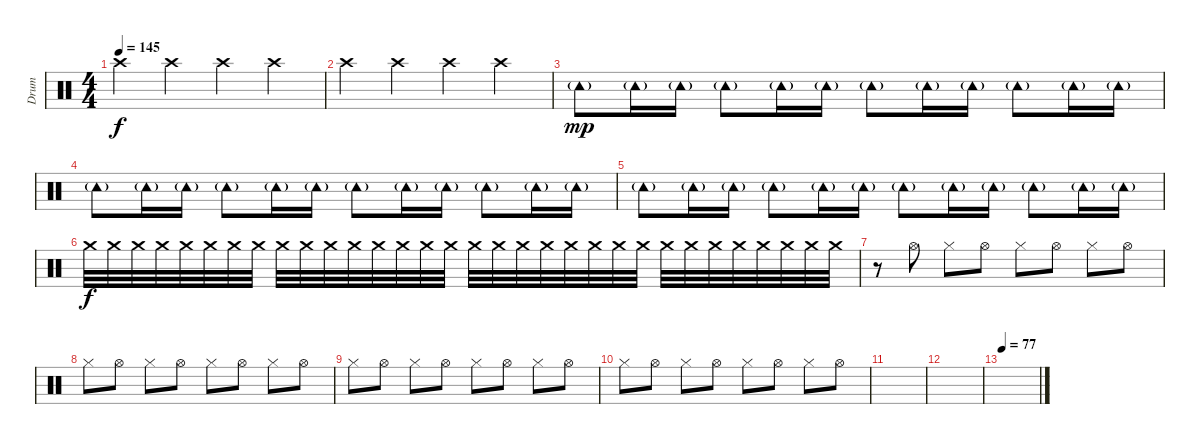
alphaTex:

\track ("Drum" "Drum") {instrument percussion bank 4}
\staff {score}
\articulation defaults
\ts (4 4)
\tempo 145
\clef neutral
\ks c "Crash high (hit)".4{dy f} "Crash high (hit)".4 "Crash high (hit)".4 "Crash high (hit)".4
|
"Crash high (hit)".4 "Crash high (hit)".4 "Crash high (hit)".4 "Crash high (hit)".4 |
"Tambourine (hit)"{g}.8{dy mp} "Tambourine (hit)"{g}.16 "Tambourine (hit)"{g}.16 "Tambourine (hit)"{g}.8 "Tambourine (hit)"{g}.16 "Tambourine (hit)"{g}.16 "Tambourine (hit)"{g}.8 "Tambourine (hit)"{g}.16 "Tambourine (hit)"{g}.16 "Tambourine (hit)"{g}.8 "Tambourine (hit)"{g}.16 "Tambourine (hit)"{g}.16 |
"Tambourine (hit)"{g}.8 "Tambourine (hit)"{g}.16 "Tambourine (hit)"{g}.16 "Tambourine (hit)"{g}.8 "Tambourine (hit)"{g}.16 "Tambourine (hit)"{g}.16 "Tambourine (hit)"{g}.8 "Tambourine (hit)"{g}.16 "Tambourine (hit)"{g}.16 "Tambourine (hit)"{g}.8 "Tambourine (hit)"{g}.16 "Tambourine (hit)"{g}.16 |
"Tambourine (hit)"{g}.8 "Tambourine (hit)"{g}.16 "Tambourine (hit)"{g}.16 "Tambourine (hit)"{g}.8 "Tambourine (hit)"{g}.16 "Tambourine (hit)"{g}.16 "Tambourine (hit)"{g}.8 "Tambourine (hit)"{g}.16 "Tambourine (hit)"{g}.16 "Tambourine (hit)"{g}.8 "Tambourine (hit)"{g}.16 "Tambourine (hit)"{g}.16{volume 6} |
"Crash medium (hit)".32{dy f volume 13} "Crash medium (hit)".32 "Crash medium (hit)".32 "Crash medium (hit)".32 "Crash medium (hit)".32 "Crash medium (hit)".32 "Crash medium (hit)".32 "Crash medium (hit)".32 "Crash medium (hit)".32 "Crash medium (hit)".32 "Crash medium (hit)".32 "Crash medium (hit)".32 "Crash medium (hit)".32 "Crash medium (hit)".32 "Crash medium (hit)".32 "Crash medium (hit)".32 "Crash medium (hit)".32 "Crash medium (hit)".32 "Crash medium (hit)".32 "Crash medium (hit)".32 "Crash medium (hit)".32 "Crash medium (hit)".32 "Crash medium (hit)".32 "Crash medium (hit)".32 "Crash medium (hit)".32 "Crash medium (hit)".32 "Crash medium (hit)".32 "Crash medium (hit)".32 "Crash medium (hit)".32 "Crash medium (hit)".32 "Crash medium (hit)".32 "Crash medium (hit)".32 |
r.8{volume 8} "Hi-Hat (open)".8 "Hi-Hat (closed)".8 "Hi-Hat (open)".8 "Hi-Hat (closed)".8 "Hi-Hat (open)".8 "Hi-Hat (closed)".8 "Hi-Hat (open)".8 |
"Hi-Hat (closed)".8 "Hi-Hat (open)".8 "Hi-Hat (closed)".8 "Hi-Hat (open)".8 "Hi-Hat (closed)".8 "Hi-Hat (open)".8 "Hi-Hat (closed)".8 "Hi-Hat (open)".8 |
"Hi-Hat (closed)".8 "Hi-Hat (open)".8 "Hi-Hat (closed)".8 "Hi-Hat (open)".8 "Hi-Hat (closed)".8 "Hi-Hat (open)".8 "Hi-Hat (closed)".8 "Hi-Hat (open)".8 |
"Hi-Hat (closed)".8 "Hi-Hat (open)".8 "Hi-Hat (closed)".8 "Hi-Hat (open)".8 "Hi-Hat (closed)".8 "Hi-Hat (open)".8 "Hi-Hat (closed)".8 "Hi-Hat (open)".8 |
|
|
\tempo 77
